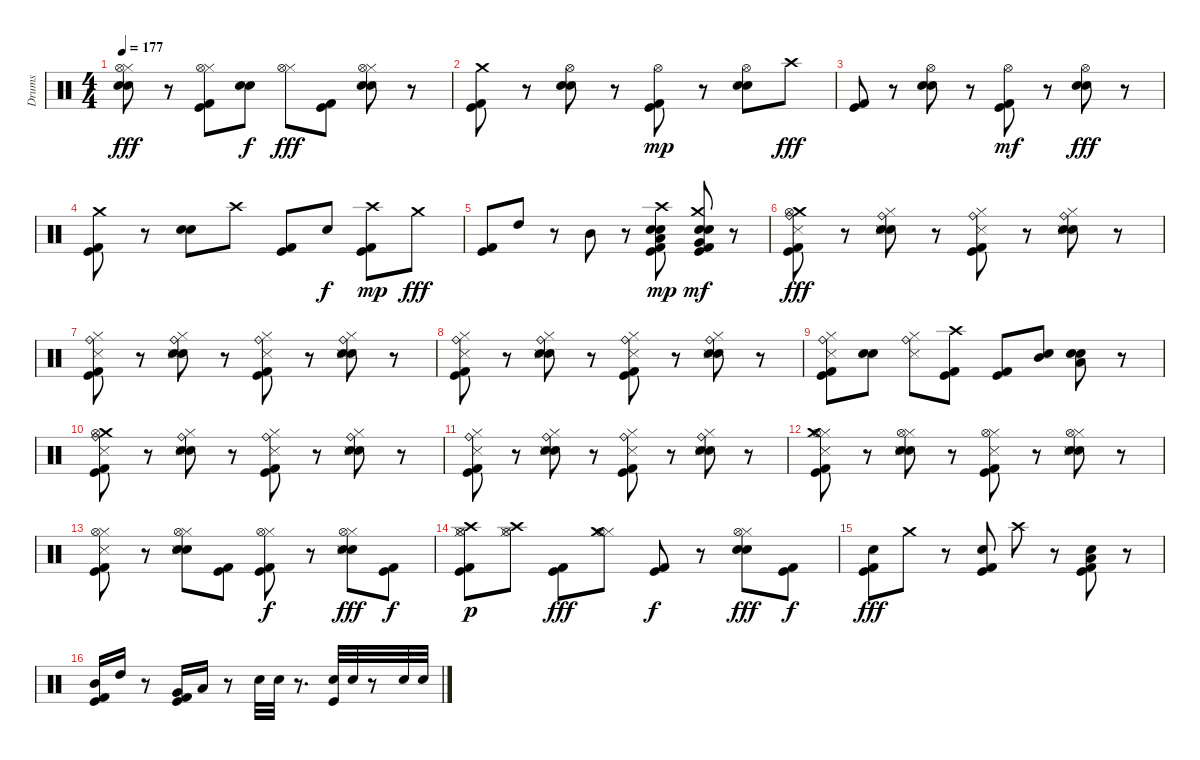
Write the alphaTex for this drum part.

\track ("Drums" "Drums") {instrument percussion}
\staff {score}
\articulation defaults
\ts (4 4)
\tempo 177
\clef neutral
\ks c
("Hi-Hat (closed)" "Hi-Hat (open)" "Electric Snare (hit)" "Snare (hit) 2").8{dy fff} r.8 ("Hi-Hat (closed)" "Hi-Hat (open)" "Kick (hit) 2" "Kick (hit)").8 ("Electric Snare (hit)" "Snare (hit) 2").8{dy f} ("Hi-Hat (closed)" "Hi-Hat (open)").8{dy fff} ("Kick (hit) 2" "Kick (hit)").8 ("Electric Snare (hit)" "Snare (hit) 2" "Hi-Hat (closed)" "Hi-Hat (open)").8 r.8 |
("Kick (hit) 2" "Kick (hit)" "Crash medium (hit)").8 r.8 ("Hi-Hat (open)" "Electric Snare (hit)" "Snare (hit) 2").8 r.8 ("Kick (hit) 2" "Kick (hit)" "Hi-Hat (open)").8{dy mp} r.8 ("Electric Snare (hit)" "Snare (hit) 2" "Hi-Hat (open)").8 "Crash high (hit)".8{dy fff} |
("Kick (hit) 2" "Kick (hit)").8 r.8 ("Electric Snare (hit)" "Snare (hit) 2" "Hi-Hat (open)").8 r.8 ("Kick (hit) 2" "Kick (hit)" "Hi-Hat (open)").8{dy mf} r.8 ("Electric Snare (hit)" "Snare (hit) 2" "Hi-Hat (open)").8{dy fff} r.8 |
("Kick (hit) 2" "Kick (hit)" "Crash medium (hit)").8 r.8 ("Electric Snare (hit)" "Snare (hit) 2").8 "Crash high (hit)".8 ("Kick (hit) 2" "Kick (hit)").8 "Electric Snare (hit)".8{dy f} ("Kick (hit) 2" "Kick (hit)" "Crash high (hit)").8{dy mp} "Crash medium (hit)".8{dy fff} |
("Kick (hit) 2" "Kick (hit)").8 "High Tom (hit)".8 r.8 "Mid Tom (hit)".8 r.8 ("Snare (hit) 2" "Electric Snare (hit)" "Kick (hit)" "Kick (hit) 2" "Low Tom (hit)" "Crash high (hit)").8{dy mp} ("Electric Snare (hit)" "Snare (hit) 2" "Kick (hit)" "Kick (hit) 2" "Very Low Tom (hit)" "Crash medium (hit)").8{dy mf} r.8 |
("Crash medium (hit)" "Kick (hit) 2" "Kick (hit)" "Hi-Hat (open)" "Snare (side stick) 3" "Ride (bell)").8{dy fff} r.8 ("Hi-Hat (closed)" "Electric Snare (hit)" "Snare (hit) 2" "Snare (side stick) 3" "Ride (bell)").8 r.8 ("Hi-Hat (closed)" "Kick (hit) 2" "Kick (hit)" "Snare (side stick) 3" "Ride (bell)").8 r.8 ("Hi-Hat (closed)" "Electric Snare (hit)" "Snare (hit) 2" "Snare (side stick) 3" "Ride (bell)").8 r.8 |
("Hi-Hat (closed)" "Kick (hit) 2" "Kick (hit)" "Snare (side stick) 3" "Ride (bell)").8 r.8 ("Hi-Hat (closed)" "Electric Snare (hit)" "Snare (hit) 2" "Snare (side stick) 3" "Ride (bell)").8 r.8 ("Hi-Hat (closed)" "Kick (hit) 2" "Kick (hit)" "Snare (side stick) 3" "Ride (bell)").8 r.8 ("Hi-Hat (closed)" "Electric Snare (hit)" "Snare (hit) 2" "Snare (side stick) 3" "Ride (bell)").8 r.8 |
("Hi-Hat (closed)" "Kick (hit) 2" "Kick (hit)" "Ride (bell)" "Snare (side stick) 3").8 r.8 ("Hi-Hat (closed)" "Electric Snare (hit)" "Snare (hit) 2" "Ride (bell)" "Snare (side stick) 3").8 r.8 ("Hi-Hat (closed)" "Kick (hit) 2" "Kick (hit)" "Ride (bell)" "Snare (side stick) 3").8 r.8 ("Hi-Hat (closed)" "Electric Snare (hit)" "Snare (hit) 2" "Ride (bell)" "Snare (side stick) 3").8 r.8 |
("Kick (hit) 2" "Kick (hit)" "Ride (bell)" "Hi-Hat (closed)" "Snare (side stick) 3").8 ("Electric Snare (hit)" "Snare (hit) 2").8 ("Ride (bell)" "Hi-Hat (closed)" "Snare (side stick) 3").8 ("Kick (hit) 2" "Kick (hit)" "Crash high (hit)").8 ("Kick (hit) 2" "Kick (hit)").8 ("Electric Snare (hit)" "Mid Tom (hit)").8 ("Electric Snare (hit)" "Snare (hit) 2" "Low Tom (hit)").8 r.8 |
("Crash medium (hit)" "Kick (hit) 2" "Kick (hit)" "Hi-Hat (open)" "Snare (side stick) 3" "Ride (bell)").8 r.8 ("Hi-Hat (closed)" "Electric Snare (hit)" "Snare (hit) 2" "Snare (side stick) 3" "Ride (bell)").8 r.8 ("Hi-Hat (closed)" "Kick (hit) 2" "Kick (hit)" "Snare (side stick) 3" "Ride (bell)").8 r.8 ("Hi-Hat (closed)" "Electric Snare (hit)" "Snare (hit) 2" "Snare (side stick) 3" "Ride (bell)").8 r.8 |
("Hi-Hat (closed)" "Kick (hit) 2" "Kick (hit)" "Snare (side stick) 3" "Ride (bell)").8 r.8 ("Hi-Hat (closed)" "Electric Snare (hit)" "Snare (hit) 2" "Snare (side stick) 3" "Ride (bell)").8 r.8 ("Hi-Hat (closed)" "Kick (hit) 2" "Kick (hit)" "Snare (side stick) 3" "Ride (bell)").8 r.8 ("Hi-Hat (closed)" "Electric Snare (hit)" "Snare (hit) 2" "Snare (side stick) 3" "Ride (bell)").8 r.8 |
("Hi-Hat (closed)" "Kick (hit) 2" "Kick (hit)" "Snare (side stick) 3" "Crash medium (hit)" "Hi-Hat (open)").8 r.8 ("Hi-Hat (closed)" "Electric Snare (hit)" "Snare (hit) 2" "Snare (side stick) 3" "Hi-Hat (open)").8 r.8 ("Hi-Hat (closed)" "Kick (hit) 2" "Kick (hit)" "Snare (side stick) 3" "Hi-Hat (open)").8 r.8 ("Hi-Hat (closed)" "Electric Snare (hit)" "Snare (hit) 2" "Snare (side stick) 3" "Hi-Hat (open)").8 r.8 |
("Kick (hit) 2" "Kick (hit)" "Hi-Hat (closed)" "Snare (side stick) 3" "Hi-Hat (open)").8 r.8 ("Hi-Hat (closed)" "Hi-Hat (open)" "Electric Snare (hit)" "Snare (hit) 2" "Snare (side stick) 3").8 ("Kick (hit) 2" "Kick (hit)").8 ("Hi-Hat (closed)" "Kick (hit) 2" "Kick (hit)" "Hi-Hat (open)").8{dy f} r.8 ("Electric Snare (hit)" "Snare (hit) 2" "Hi-Hat (closed)" "Snare (side stick) 3" "Hi-Hat (open)").8{dy fff} ("Kick (hit) 2" "Kick (hit)").8{dy f} |
("Kick (hit) 2" "Kick (hit)" "Hi-Hat (closed)" "Hi-Hat (open)" "Crash high (hit)").8{dy p} ("Hi-Hat (closed)" "Hi-Hat (open)" "Crash high (hit)").8 ("Kick (hit) 2" "Kick (hit)").8{dy fff} ("Hi-Hat (closed)" "Hi-Hat (open)" "Crash medium (hit)").8 ("Kick (hit) 2" "Kick (hit)").8{dy f} r.8 ("Snare (hit) 2" "Electric Snare (hit)" "Hi-Hat (closed)" "Hi-Hat (open)").8{dy fff} ("Kick (hit) 2" "Kick (hit)").8{dy f} |
("Electric Snare (hit)" "Kick (hit) 2" "Kick (hit)").8{dy fff} "Crash medium (hit)".8 r.8 ("Electric Snare (hit)" "Kick (hit) 2" "Kick (hit)").8 "Crash high (hit)".8 r.8 ("Electric Snare (hit)" "Kick (hit) 2" "Kick (hit)" "Low Tom (hit)").8 r.8 |
("Kick (hit) 2" "Kick (hit)" "Mid Tom (hit)").16 "High Tom (hit)".16 r.8 ("Kick (hit) 2" "Kick (hit)" "Very Low Tom (hit)").16 "Low Tom (hit)".16 r.8 "Electric Snare (hit)".32 "Electric Snare (hit)".32 r.8{d} ("Kick (hit)" "Electric Snare (hit)").32 "Electric Snare (hit)".32 r.8 "Electric Snare (hit)".32 "Electric Snare (hit)".32
